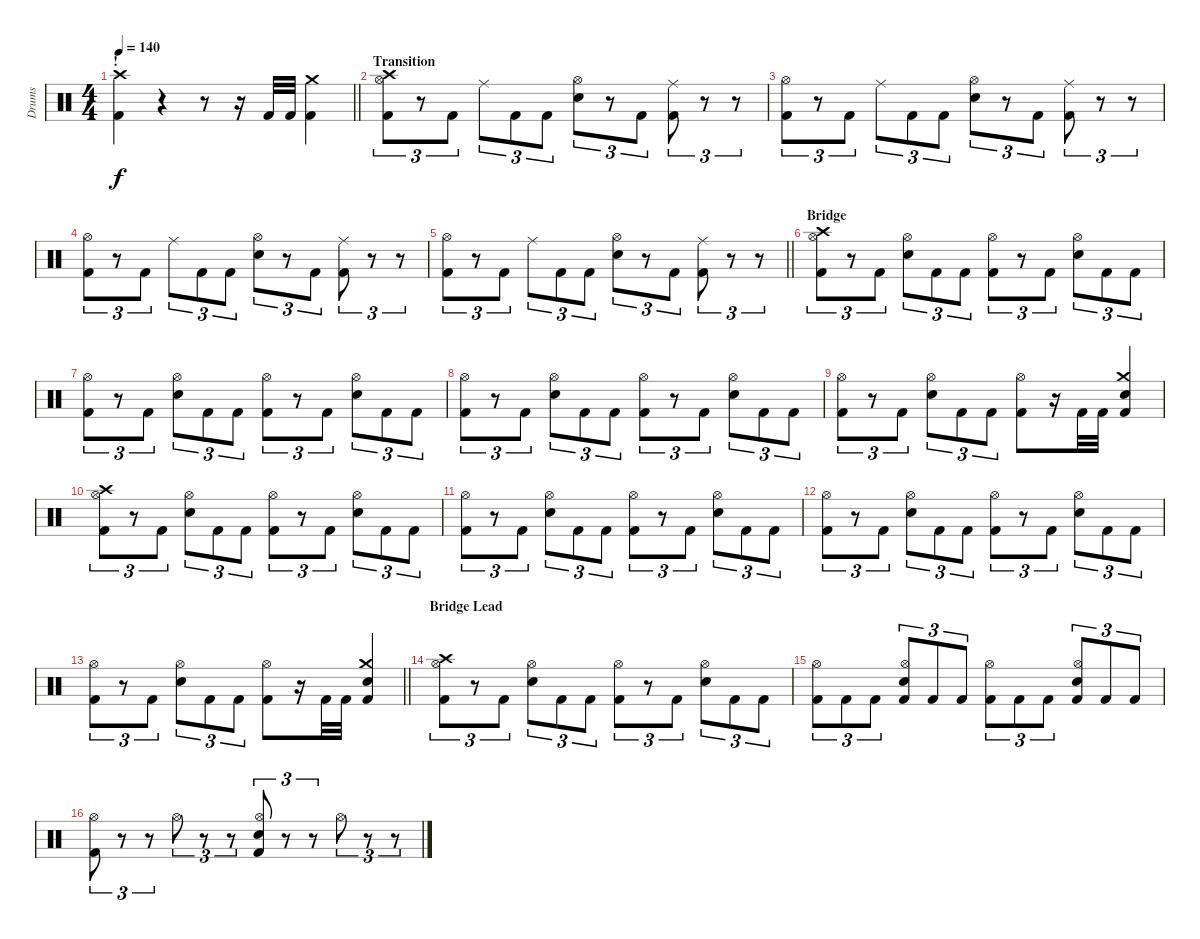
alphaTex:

\track ("Drums" "Drums") {instrument percussion}
\staff {score}
\articulation defaults
\ts (4 4)
\section ("" "!")
\tempo 140
\clef neutral
\barLineRight lightlight
\ks c
("Crash high (hit)" "Kick (hit) 2").4{dy f} r.4 r.8 r.16 "Kick (hit) 2".32 "Kick (hit) 2".32 ("Crash medium (hit)" "Kick (hit) 2").4 |
\section ("" "Transition")
("Crash high (hit)" "Hi-Hat (open)" "Kick (hit) 2").8{tu (3 2)} r.8{tu (3 2)} "Kick (hit) 2".8{tu (3 2)} "Ride (middle)".8{tu (3 2)} "Kick (hit) 2".8{tu (3 2)} "Kick (hit) 2".8{tu (3 2)} ("Hi-Hat (open)" "Snare (hit) 2").8{tu (3 2)} r.8{tu (3 2)} "Kick (hit) 2".8{tu (3 2)} ("Ride (middle)" "Kick (hit) 2").8{tu (3 2)} r.8{tu (3 2)} r.8{tu (3 2)} |
("Hi-Hat (open)" "Kick (hit) 2").8{tu (3 2)} r.8{tu (3 2)} "Kick (hit) 2".8{tu (3 2)} "Ride (middle)".8{tu (3 2)} "Kick (hit) 2".8{tu (3 2)} "Kick (hit) 2".8{tu (3 2)} ("Hi-Hat (open)" "Snare (hit) 2").8{tu (3 2)} r.8{tu (3 2)} "Kick (hit) 2".8{tu (3 2)} ("Ride (middle)" "Kick (hit) 2").8{tu (3 2)} r.8{tu (3 2)} r.8{tu (3 2)} |
("Hi-Hat (open)" "Kick (hit) 2").8{tu (3 2)} r.8{tu (3 2)} "Kick (hit) 2".8{tu (3 2)} "Ride (middle)".8{tu (3 2)} "Kick (hit) 2".8{tu (3 2)} "Kick (hit) 2".8{tu (3 2)} ("Hi-Hat (open)" "Snare (hit) 2").8{tu (3 2)} r.8{tu (3 2)} "Kick (hit) 2".8{tu (3 2)} ("Ride (middle)" "Kick (hit) 2").8{tu (3 2)} r.8{tu (3 2)} r.8{tu (3 2)} |
\barLineRight lightlight
("Hi-Hat (open)" "Kick (hit) 2").8{tu (3 2)} r.8{tu (3 2)} "Kick (hit) 2".8{tu (3 2)} "Ride (middle)".8{tu (3 2)} "Kick (hit) 2".8{tu (3 2)} "Kick (hit) 2".8{tu (3 2)} ("Hi-Hat (open)" "Snare (hit) 2").8{tu (3 2)} r.8{tu (3 2)} "Kick (hit) 2".8{tu (3 2)} ("Ride (middle)" "Kick (hit) 2").8{tu (3 2)} r.8{tu (3 2)} r.8{tu (3 2)} |
\section ("" "Bridge")
("Crash high (hit)" "Hi-Hat (open)" "Kick (hit) 2").8{tu (3 2)} r.8{tu (3 2)} "Kick (hit) 2".8{tu (3 2)} ("Hi-Hat (open)" "Snare (hit) 2").8{tu (3 2)} "Kick (hit) 2".8{tu (3 2)} "Kick (hit) 2".8{tu (3 2)} ("Hi-Hat (open)" "Kick (hit) 2").8{tu (3 2)} r.8{tu (3 2)} "Kick (hit) 2".8{tu (3 2)} ("Hi-Hat (open)" "Snare (hit) 2").8{tu (3 2)} "Kick (hit) 2".8{tu (3 2)} "Kick (hit) 2".8{tu (3 2)} |
("Hi-Hat (open)" "Kick (hit) 2").8{tu (3 2)} r.8{tu (3 2)} "Kick (hit) 2".8{tu (3 2)} ("Hi-Hat (open)" "Snare (hit) 2").8{tu (3 2)} "Kick (hit) 2".8{tu (3 2)} "Kick (hit) 2".8{tu (3 2)} ("Hi-Hat (open)" "Kick (hit) 2").8{tu (3 2)} r.8{tu (3 2)} "Kick (hit) 2".8{tu (3 2)} ("Hi-Hat (open)" "Snare (hit) 2").8{tu (3 2)} "Kick (hit) 2".8{tu (3 2)} "Kick (hit) 2".8{tu (3 2)} |
("Hi-Hat (open)" "Kick (hit) 2").8{tu (3 2)} r.8{tu (3 2)} "Kick (hit) 2".8{tu (3 2)} ("Hi-Hat (open)" "Snare (hit) 2").8{tu (3 2)} "Kick (hit) 2".8{tu (3 2)} "Kick (hit) 2".8{tu (3 2)} ("Hi-Hat (open)" "Kick (hit) 2").8{tu (3 2)} r.8{tu (3 2)} "Kick (hit) 2".8{tu (3 2)} ("Hi-Hat (open)" "Snare (hit) 2").8{tu (3 2)} "Kick (hit) 2".8{tu (3 2)} "Kick (hit) 2".8{tu (3 2)} |
("Hi-Hat (open)" "Kick (hit) 2").8{tu (3 2)} r.8{tu (3 2)} "Kick (hit) 2".8{tu (3 2)} ("Hi-Hat (open)" "Snare (hit) 2").8{tu (3 2)} "Kick (hit) 2".8{tu (3 2)} "Kick (hit) 2".8{tu (3 2)} ("Hi-Hat (open)" "Kick (hit) 2").8 r.16 "Kick (hit) 2".32 "Kick (hit) 2".32 ("Crash medium (hit)" "Snare (hit) 2" "Kick (hit) 2").4 |
("Crash high (hit)" "Hi-Hat (open)" "Kick (hit) 2").8{tu (3 2)} r.8{tu (3 2)} "Kick (hit) 2".8{tu (3 2)} ("Hi-Hat (open)" "Snare (hit) 2").8{tu (3 2)} "Kick (hit) 2".8{tu (3 2)} "Kick (hit) 2".8{tu (3 2)} ("Hi-Hat (open)" "Kick (hit) 2").8{tu (3 2)} r.8{tu (3 2)} "Kick (hit) 2".8{tu (3 2)} ("Hi-Hat (open)" "Snare (hit) 2").8{tu (3 2)} "Kick (hit) 2".8{tu (3 2)} "Kick (hit) 2".8{tu (3 2)} |
("Hi-Hat (open)" "Kick (hit) 2").8{tu (3 2)} r.8{tu (3 2)} "Kick (hit) 2".8{tu (3 2)} ("Hi-Hat (open)" "Snare (hit) 2").8{tu (3 2)} "Kick (hit) 2".8{tu (3 2)} "Kick (hit) 2".8{tu (3 2)} ("Hi-Hat (open)" "Kick (hit) 2").8{tu (3 2)} r.8{tu (3 2)} "Kick (hit) 2".8{tu (3 2)} ("Hi-Hat (open)" "Snare (hit) 2").8{tu (3 2)} "Kick (hit) 2".8{tu (3 2)} "Kick (hit) 2".8{tu (3 2)} |
("Hi-Hat (open)" "Kick (hit) 2").8{tu (3 2)} r.8{tu (3 2)} "Kick (hit) 2".8{tu (3 2)} ("Hi-Hat (open)" "Snare (hit) 2").8{tu (3 2)} "Kick (hit) 2".8{tu (3 2)} "Kick (hit) 2".8{tu (3 2)} ("Hi-Hat (open)" "Kick (hit) 2").8{tu (3 2)} r.8{tu (3 2)} "Kick (hit) 2".8{tu (3 2)} ("Hi-Hat (open)" "Snare (hit) 2").8{tu (3 2)} "Kick (hit) 2".8{tu (3 2)} "Kick (hit) 2".8{tu (3 2)} |
\barLineRight lightlight
("Hi-Hat (open)" "Kick (hit) 2").8{tu (3 2)} r.8{tu (3 2)} "Kick (hit) 2".8{tu (3 2)} ("Hi-Hat (open)" "Snare (hit) 2").8{tu (3 2)} "Kick (hit) 2".8{tu (3 2)} "Kick (hit) 2".8{tu (3 2)} ("Hi-Hat (open)" "Kick (hit) 2").8 r.16 "Kick (hit) 2".32 "Kick (hit) 2".32 ("Crash medium (hit)" "Snare (hit) 2" "Kick (hit) 2").4 |
\section ("" "Bridge Lead")
("Crash high (hit)" "Hi-Hat (open)" "Kick (hit) 2").8{tu (3 2)} r.8{tu (3 2)} "Kick (hit) 2".8{tu (3 2)} ("Hi-Hat (open)" "Snare (hit) 2").8{tu (3 2)} "Kick (hit) 2".8{tu (3 2)} "Kick (hit) 2".8{tu (3 2)} ("Hi-Hat (open)" "Kick (hit) 2").8{tu (3 2)} r.8{tu (3 2)} "Kick (hit) 2".8{tu (3 2)} ("Hi-Hat (open)" "Snare (hit) 2").8{tu (3 2)} "Kick (hit) 2".8{tu (3 2)} "Kick (hit) 2".8{tu (3 2)} |
("Hi-Hat (open)" "Kick (hit) 2").8{tu (3 2)} "Kick (hit) 2".8{tu (3 2)} "Kick (hit) 2".8{tu (3 2)} ("Hi-Hat (open)" "Snare (hit) 2" "Kick (hit) 2").8{tu (3 2)} "Kick (hit) 2".8{tu (3 2)} "Kick (hit) 2".8{tu (3 2)} ("Hi-Hat (open)" "Kick (hit) 2").8{tu (3 2)} "Kick (hit) 2".8{tu (3 2)} "Kick (hit) 2".8{tu (3 2)} ("Hi-Hat (open)" "Snare (hit) 2" "Kick (hit) 2").8{tu (3 2)} "Kick (hit) 2".8{tu (3 2)} "Kick (hit) 2".8{tu (3 2)} |
("Hi-Hat (open)" "Kick (hit) 2").8{tu (3 2)} r.8{tu (3 2)} r.8{tu (3 2)} "Hi-Hat (open)".8{tu (3 2)} r.8{tu (3 2)} r.8{tu (3 2)} ("Hi-Hat (open)" "Snare (hit) 2" "Kick (hit) 2").8{tu (3 2)} r.8{tu (3 2)} r.8{tu (3 2)} "Hi-Hat (open)".8{tu (3 2)} r.8{tu (3 2)} r.8{tu (3 2)}
